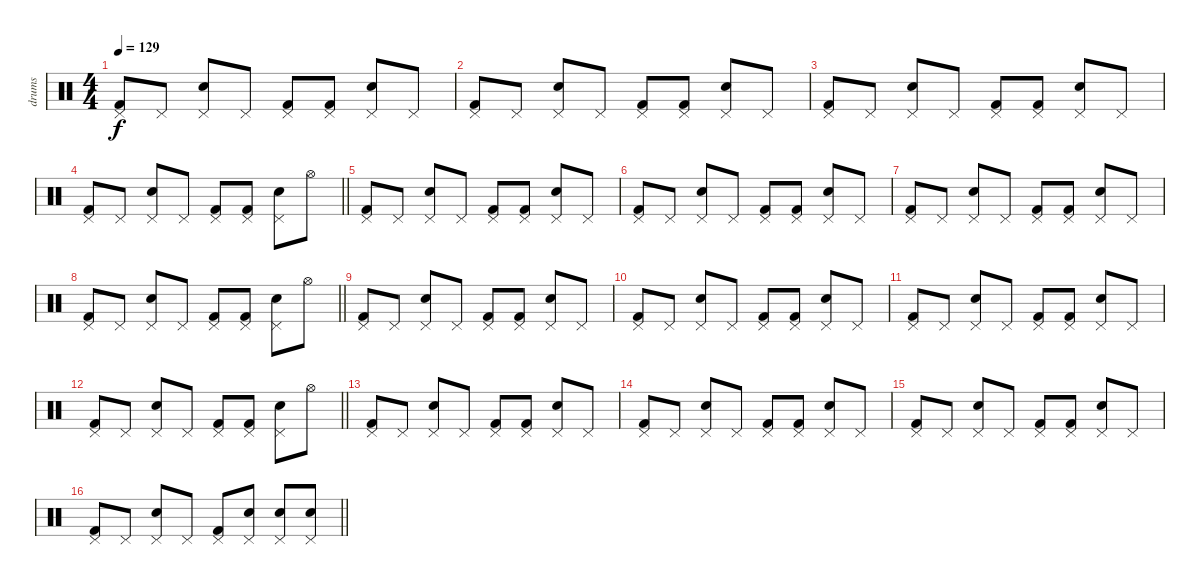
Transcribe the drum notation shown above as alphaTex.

\track ("drums" "drums") {instrument percussion}
\staff {score}
\articulation defaults
\ts (4 4)
\tempo 129
\clef neutral
\ks c
("Kick (hit) 2" "Pedal Hi-Hat (hit)").8{dy f} "Pedal Hi-Hat (hit)".8 ("Electric Snare (hit)" "Pedal Hi-Hat (hit)").8 "Pedal Hi-Hat (hit)".8 ("Kick (hit) 2" "Pedal Hi-Hat (hit)").8 ("Kick (hit) 2" "Pedal Hi-Hat (hit)").8 ("Electric Snare (hit)" "Pedal Hi-Hat (hit)").8 "Pedal Hi-Hat (hit)".8 |
("Kick (hit) 2" "Pedal Hi-Hat (hit)").8 "Pedal Hi-Hat (hit)".8 ("Electric Snare (hit)" "Pedal Hi-Hat (hit)").8 "Pedal Hi-Hat (hit)".8 ("Kick (hit) 2" "Pedal Hi-Hat (hit)").8 ("Kick (hit) 2" "Pedal Hi-Hat (hit)").8 ("Electric Snare (hit)" "Pedal Hi-Hat (hit)").8 "Pedal Hi-Hat (hit)".8 |
("Kick (hit) 2" "Pedal Hi-Hat (hit)").8 "Pedal Hi-Hat (hit)".8 ("Electric Snare (hit)" "Pedal Hi-Hat (hit)").8 "Pedal Hi-Hat (hit)".8 ("Kick (hit) 2" "Pedal Hi-Hat (hit)").8 ("Kick (hit) 2" "Pedal Hi-Hat (hit)").8 ("Electric Snare (hit)" "Pedal Hi-Hat (hit)").8 "Pedal Hi-Hat (hit)".8 |
\barLineRight lightlight
("Kick (hit) 2" "Pedal Hi-Hat (hit)").8 "Pedal Hi-Hat (hit)".8 ("Electric Snare (hit)" "Pedal Hi-Hat (hit)").8 "Pedal Hi-Hat (hit)".8 ("Kick (hit) 2" "Pedal Hi-Hat (hit)").8 ("Kick (hit) 2" "Pedal Hi-Hat (hit)").8 ("Electric Snare (hit)" "Pedal Hi-Hat (hit)").8 "Hi-Hat (open)".8 |
("Kick (hit) 2" "Pedal Hi-Hat (hit)").8 "Pedal Hi-Hat (hit)".8 ("Electric Snare (hit)" "Pedal Hi-Hat (hit)").8 "Pedal Hi-Hat (hit)".8 ("Kick (hit) 2" "Pedal Hi-Hat (hit)").8 ("Kick (hit) 2" "Pedal Hi-Hat (hit)").8 ("Electric Snare (hit)" "Pedal Hi-Hat (hit)").8 "Pedal Hi-Hat (hit)".8 |
("Kick (hit) 2" "Pedal Hi-Hat (hit)").8 "Pedal Hi-Hat (hit)".8 ("Electric Snare (hit)" "Pedal Hi-Hat (hit)").8 "Pedal Hi-Hat (hit)".8 ("Kick (hit) 2" "Pedal Hi-Hat (hit)").8 ("Kick (hit) 2" "Pedal Hi-Hat (hit)").8 ("Electric Snare (hit)" "Pedal Hi-Hat (hit)").8 "Pedal Hi-Hat (hit)".8 |
("Kick (hit) 2" "Pedal Hi-Hat (hit)").8 "Pedal Hi-Hat (hit)".8 ("Electric Snare (hit)" "Pedal Hi-Hat (hit)").8 "Pedal Hi-Hat (hit)".8 ("Kick (hit) 2" "Pedal Hi-Hat (hit)").8 ("Kick (hit) 2" "Pedal Hi-Hat (hit)").8 ("Electric Snare (hit)" "Pedal Hi-Hat (hit)").8 "Pedal Hi-Hat (hit)".8 |
\barLineRight lightlight
("Kick (hit) 2" "Pedal Hi-Hat (hit)").8 "Pedal Hi-Hat (hit)".8 ("Electric Snare (hit)" "Pedal Hi-Hat (hit)").8 "Pedal Hi-Hat (hit)".8 ("Kick (hit) 2" "Pedal Hi-Hat (hit)").8 ("Kick (hit) 2" "Pedal Hi-Hat (hit)").8 ("Electric Snare (hit)" "Pedal Hi-Hat (hit)").8 "Hi-Hat (open)".8 |
("Kick (hit) 2" "Pedal Hi-Hat (hit)").8 "Pedal Hi-Hat (hit)".8 ("Electric Snare (hit)" "Pedal Hi-Hat (hit)").8 "Pedal Hi-Hat (hit)".8 ("Kick (hit) 2" "Pedal Hi-Hat (hit)").8 ("Kick (hit) 2" "Pedal Hi-Hat (hit)").8 ("Electric Snare (hit)" "Pedal Hi-Hat (hit)").8 "Pedal Hi-Hat (hit)".8 |
("Kick (hit) 2" "Pedal Hi-Hat (hit)").8 "Pedal Hi-Hat (hit)".8 ("Electric Snare (hit)" "Pedal Hi-Hat (hit)").8 "Pedal Hi-Hat (hit)".8 ("Kick (hit) 2" "Pedal Hi-Hat (hit)").8 ("Kick (hit) 2" "Pedal Hi-Hat (hit)").8 ("Electric Snare (hit)" "Pedal Hi-Hat (hit)").8 "Pedal Hi-Hat (hit)".8 |
("Kick (hit) 2" "Pedal Hi-Hat (hit)").8 "Pedal Hi-Hat (hit)".8 ("Electric Snare (hit)" "Pedal Hi-Hat (hit)").8 "Pedal Hi-Hat (hit)".8 ("Kick (hit) 2" "Pedal Hi-Hat (hit)").8 ("Kick (hit) 2" "Pedal Hi-Hat (hit)").8 ("Electric Snare (hit)" "Pedal Hi-Hat (hit)").8 "Pedal Hi-Hat (hit)".8 |
\barLineRight lightlight
("Kick (hit) 2" "Pedal Hi-Hat (hit)").8 "Pedal Hi-Hat (hit)".8 ("Electric Snare (hit)" "Pedal Hi-Hat (hit)").8 "Pedal Hi-Hat (hit)".8 ("Kick (hit) 2" "Pedal Hi-Hat (hit)").8 ("Kick (hit) 2" "Pedal Hi-Hat (hit)").8 ("Electric Snare (hit)" "Pedal Hi-Hat (hit)").8 "Hi-Hat (open)".8 |
("Kick (hit) 2" "Pedal Hi-Hat (hit)").8 "Pedal Hi-Hat (hit)".8 ("Electric Snare (hit)" "Pedal Hi-Hat (hit)").8 "Pedal Hi-Hat (hit)".8 ("Kick (hit) 2" "Pedal Hi-Hat (hit)").8 ("Kick (hit) 2" "Pedal Hi-Hat (hit)").8 ("Electric Snare (hit)" "Pedal Hi-Hat (hit)").8 "Pedal Hi-Hat (hit)".8 |
("Kick (hit) 2" "Pedal Hi-Hat (hit)").8 "Pedal Hi-Hat (hit)".8 ("Electric Snare (hit)" "Pedal Hi-Hat (hit)").8 "Pedal Hi-Hat (hit)".8 ("Kick (hit) 2" "Pedal Hi-Hat (hit)").8 ("Kick (hit) 2" "Pedal Hi-Hat (hit)").8 ("Electric Snare (hit)" "Pedal Hi-Hat (hit)").8 "Pedal Hi-Hat (hit)".8 |
("Kick (hit) 2" "Pedal Hi-Hat (hit)").8 "Pedal Hi-Hat (hit)".8 ("Electric Snare (hit)" "Pedal Hi-Hat (hit)").8 "Pedal Hi-Hat (hit)".8 ("Kick (hit) 2" "Pedal Hi-Hat (hit)").8 ("Kick (hit) 2" "Pedal Hi-Hat (hit)").8 ("Electric Snare (hit)" "Pedal Hi-Hat (hit)").8 "Pedal Hi-Hat (hit)".8 |
\barLineRight lightlight
("Kick (hit) 2" "Pedal Hi-Hat (hit)").8 "Pedal Hi-Hat (hit)".8 ("Electric Snare (hit)" "Pedal Hi-Hat (hit)").8 "Pedal Hi-Hat (hit)".8 ("Kick (hit) 2" "Pedal Hi-Hat (hit)").8 ("Electric Snare (hit)" "Pedal Hi-Hat (hit)").8 ("Electric Snare (hit)" "Pedal Hi-Hat (hit)").8 ("Electric Snare (hit)" "Pedal Hi-Hat (hit)").8
